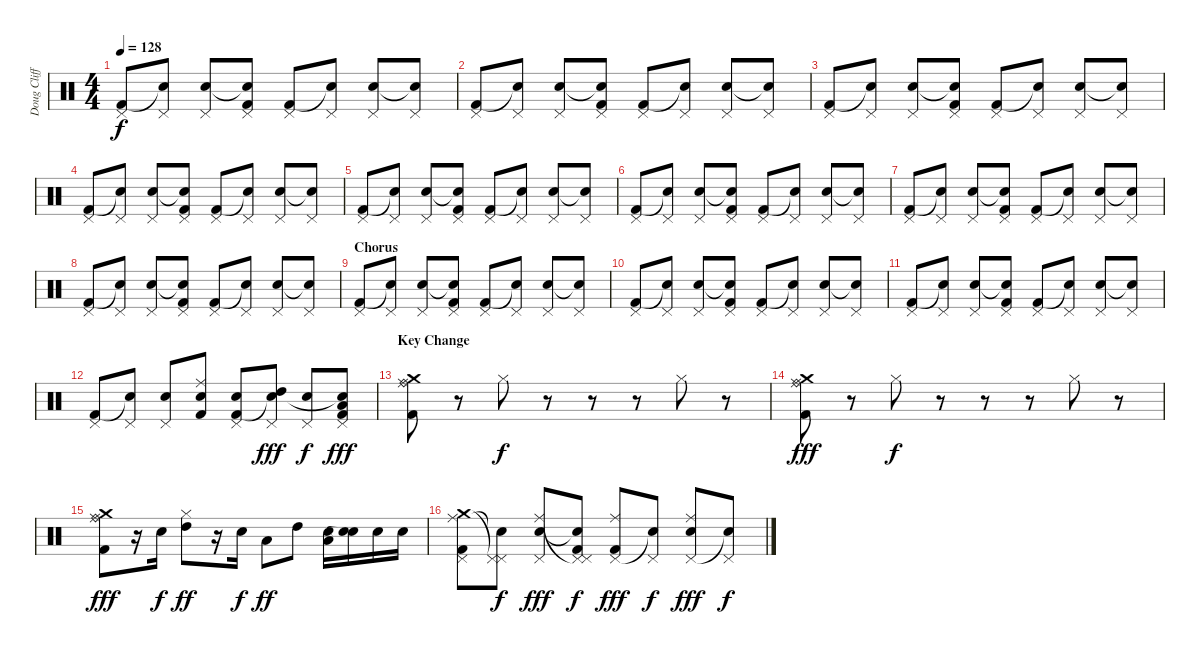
\track ("Doug Clifford" "Doug Cliff") {instrument percussion}
\staff {score}
\articulation defaults
\ts (4 4)
\tempo 128
\clef neutral
\ks c
("Pedal Hi-Hat (hit)" "Kick (hit) 2").8{dy f} ("Pedal Hi-Hat (hit)" "Snare (hit)"{t}).8 ("Pedal Hi-Hat (hit)" "Snare (hit) 2").8 ("Pedal Hi-Hat (hit)" "Snare (hit)"{t} "Kick (hit) 2").8 ("Pedal Hi-Hat (hit)" "Kick (hit) 2").8 ("Pedal Hi-Hat (hit)" "Snare (hit)"{t}).8 ("Pedal Hi-Hat (hit)" "Snare (hit) 2").8 ("Pedal Hi-Hat (hit)" "Snare (hit)"{t}).8 |
("Pedal Hi-Hat (hit)" "Kick (hit) 2").8 ("Pedal Hi-Hat (hit)" "Snare (hit)"{t}).8 ("Pedal Hi-Hat (hit)" "Snare (hit) 2").8 ("Pedal Hi-Hat (hit)" "Snare (hit)"{t} "Kick (hit) 2").8 ("Pedal Hi-Hat (hit)" "Kick (hit) 2").8 ("Pedal Hi-Hat (hit)" "Snare (hit)"{t}).8 ("Pedal Hi-Hat (hit)" "Snare (hit) 2").8 ("Pedal Hi-Hat (hit)" "Snare (hit)"{t}).8 |
("Pedal Hi-Hat (hit)" "Kick (hit) 2").8 ("Pedal Hi-Hat (hit)" "Snare (hit)"{t}).8 ("Pedal Hi-Hat (hit)" "Snare (hit) 2").8 ("Pedal Hi-Hat (hit)" "Snare (hit)"{t} "Kick (hit) 2").8 ("Pedal Hi-Hat (hit)" "Kick (hit) 2").8 ("Pedal Hi-Hat (hit)" "Snare (hit)"{t}).8 ("Pedal Hi-Hat (hit)" "Snare (hit) 2").8 ("Pedal Hi-Hat (hit)" "Snare (hit)"{t}).8 |
("Pedal Hi-Hat (hit)" "Kick (hit) 2").8 ("Pedal Hi-Hat (hit)" "Snare (hit)"{t}).8 ("Pedal Hi-Hat (hit)" "Snare (hit) 2").8 ("Pedal Hi-Hat (hit)" "Snare (hit)"{t} "Kick (hit) 2").8 ("Pedal Hi-Hat (hit)" "Kick (hit) 2").8 ("Pedal Hi-Hat (hit)" "Snare (hit)"{t}).8 ("Pedal Hi-Hat (hit)" "Snare (hit) 2").8 ("Pedal Hi-Hat (hit)" "Snare (hit)"{t}).8 |
("Pedal Hi-Hat (hit)" "Kick (hit) 2").8 ("Pedal Hi-Hat (hit)" "Snare (hit)"{t}).8 ("Pedal Hi-Hat (hit)" "Snare (hit) 2").8 ("Pedal Hi-Hat (hit)" "Snare (hit)"{t} "Kick (hit) 2").8 ("Pedal Hi-Hat (hit)" "Kick (hit) 2").8 ("Pedal Hi-Hat (hit)" "Snare (hit)"{t}).8 ("Pedal Hi-Hat (hit)" "Snare (hit) 2").8 ("Pedal Hi-Hat (hit)" "Snare (hit)"{t}).8 |
("Pedal Hi-Hat (hit)" "Kick (hit) 2").8 ("Pedal Hi-Hat (hit)" "Snare (hit)"{t}).8 ("Pedal Hi-Hat (hit)" "Snare (hit) 2").8 ("Pedal Hi-Hat (hit)" "Snare (hit)"{t} "Kick (hit) 2").8 ("Pedal Hi-Hat (hit)" "Kick (hit) 2").8 ("Pedal Hi-Hat (hit)" "Snare (hit)"{t}).8 ("Pedal Hi-Hat (hit)" "Snare (hit) 2").8 ("Pedal Hi-Hat (hit)" "Snare (hit)"{t}).8 |
("Pedal Hi-Hat (hit)" "Kick (hit) 2").8 ("Pedal Hi-Hat (hit)" "Snare (hit)"{t}).8 ("Pedal Hi-Hat (hit)" "Snare (hit) 2").8 ("Pedal Hi-Hat (hit)" "Snare (hit)"{t} "Kick (hit) 2").8 ("Pedal Hi-Hat (hit)" "Kick (hit) 2").8 ("Pedal Hi-Hat (hit)" "Snare (hit)"{t}).8 ("Pedal Hi-Hat (hit)" "Snare (hit) 2").8 ("Pedal Hi-Hat (hit)" "Snare (hit)"{t}).8 |
("Pedal Hi-Hat (hit)" "Kick (hit) 2").8 ("Pedal Hi-Hat (hit)" "Snare (hit)"{t}).8 ("Pedal Hi-Hat (hit)" "Snare (hit) 2").8 ("Pedal Hi-Hat (hit)" "Snare (hit)"{t} "Kick (hit) 2").8 ("Pedal Hi-Hat (hit)" "Kick (hit) 2").8 ("Pedal Hi-Hat (hit)" "Snare (hit)"{t}).8 ("Pedal Hi-Hat (hit)" "Snare (hit) 2").8 ("Pedal Hi-Hat (hit)" "Snare (hit)"{t}).8 |
\section ("" "Chorus")
("Pedal Hi-Hat (hit)" "Kick (hit) 2").8 ("Pedal Hi-Hat (hit)" "Snare (hit)"{t}).8 ("Pedal Hi-Hat (hit)" "Snare (hit) 2").8 ("Pedal Hi-Hat (hit)" "Snare (hit)"{t} "Kick (hit) 2").8 ("Pedal Hi-Hat (hit)" "Kick (hit) 2").8 ("Pedal Hi-Hat (hit)" "Snare (hit)"{t}).8 ("Pedal Hi-Hat (hit)" "Snare (hit) 2").8 ("Pedal Hi-Hat (hit)" "Snare (hit)"{t}).8 |
("Pedal Hi-Hat (hit)" "Kick (hit) 2").8 ("Pedal Hi-Hat (hit)" "Snare (hit)"{t}).8 ("Pedal Hi-Hat (hit)" "Snare (hit) 2").8 ("Pedal Hi-Hat (hit)" "Snare (hit)"{t} "Kick (hit) 2").8 ("Pedal Hi-Hat (hit)" "Kick (hit) 2").8 ("Pedal Hi-Hat (hit)" "Snare (hit)"{t}).8 ("Pedal Hi-Hat (hit)" "Snare (hit) 2").8 ("Pedal Hi-Hat (hit)" "Snare (hit)"{t}).8 |
("Pedal Hi-Hat (hit)" "Kick (hit) 2").8 ("Pedal Hi-Hat (hit)" "Snare (hit)"{t}).8 ("Pedal Hi-Hat (hit)" "Snare (hit) 2").8 ("Pedal Hi-Hat (hit)" "Snare (hit)"{t} "Kick (hit) 2").8 ("Pedal Hi-Hat (hit)" "Kick (hit) 2").8 ("Pedal Hi-Hat (hit)" "Snare (hit)"{t}).8 ("Pedal Hi-Hat (hit)" "Snare (hit) 2").8 ("Pedal Hi-Hat (hit)" "Snare (hit)"{t}).8 |
("Pedal Hi-Hat (hit)" "Kick (hit) 2").8 ("Pedal Hi-Hat (hit)" "Snare (hit)"{t}).8 ("Pedal Hi-Hat (hit)" "Snare (hit) 2").8 ("Ride (middle)" "Snare (hit) 2" "Kick (hit) 2").8 ("Pedal Hi-Hat (hit)" "Snare (hit) 2" "Kick (hit) 2").8 ("High Tom (hit)" "Pedal Hi-Hat (hit)" "Snare (hit)"{t}).8{dy fff} ("Pedal Hi-Hat (hit)" "Snare (hit) 2").8{dy f} ("Low Floor Tom (hit)" "Pedal Hi-Hat (hit)" "Snare (hit)"{t} "Kick (hit) 2").8{dy fff} |
\section ("" "Key Change")
("Crash medium (hit)" "Ride (bell)" "Ride (middle)" "Kick (hit) 2").8 r.8 "Hi-Hat (closed)".8{dy f} r.8 r.8 r.8 "Hi-Hat (closed)".8 r.8 |
("Crash medium (hit)" "Ride (bell)" "Ride (middle)" "Kick (hit) 2").8{dy fff} r.8 "Hi-Hat (closed)".8{dy f} r.8 r.8 r.8 "Hi-Hat (closed)".8 r.8 |
("Crash medium (hit)" "Ride (bell)" "Ride (middle)" "Kick (hit) 2").8{dy fff} r.16 "Snare (hit) 2".16{dy f} ("High Tom (hit)" "Hi-Hat (closed)").8{dy ff} r.16 "Snare (hit) 2".16{dy f} "Low Floor Tom (hit)".8{dy ff} "High Tom (hit)".8 ("Low Floor Tom (hit)" "Snare (hit) 2").16 ("Snare (hit)"{t} "Snare (hit) 2").16 "Snare (hit) 2".16 "Snare (hit) 2".16 |
("Crash medium (hit)" "Pedal Hi-Hat (hit)" "Ride (middle)" "Kick (hit) 2").8 ("Pedal Hi-Hat (hit)"{t} "Pedal Hi-Hat (hit)" "Snare (hit)"{t}).8{dy f} ("Ride (middle)" "Pedal Hi-Hat (hit)" "Snare (hit) 2").8{dy fff} ("Pedal Hi-Hat (hit)"{t} "Pedal Hi-Hat (hit)" "Snare (hit)"{t} "Kick (hit) 2").8{dy f} ("Ride (middle)" "Pedal Hi-Hat (hit)" "Kick (hit) 2").8{dy fff} ("Pedal Hi-Hat (hit)" "Snare (hit)"{t}).8{dy f} ("Ride (middle)" "Pedal Hi-Hat (hit)" "Snare (hit) 2").8{dy fff} ("Pedal Hi-Hat (hit)" "Snare (hit)"{t}).8{dy f}
